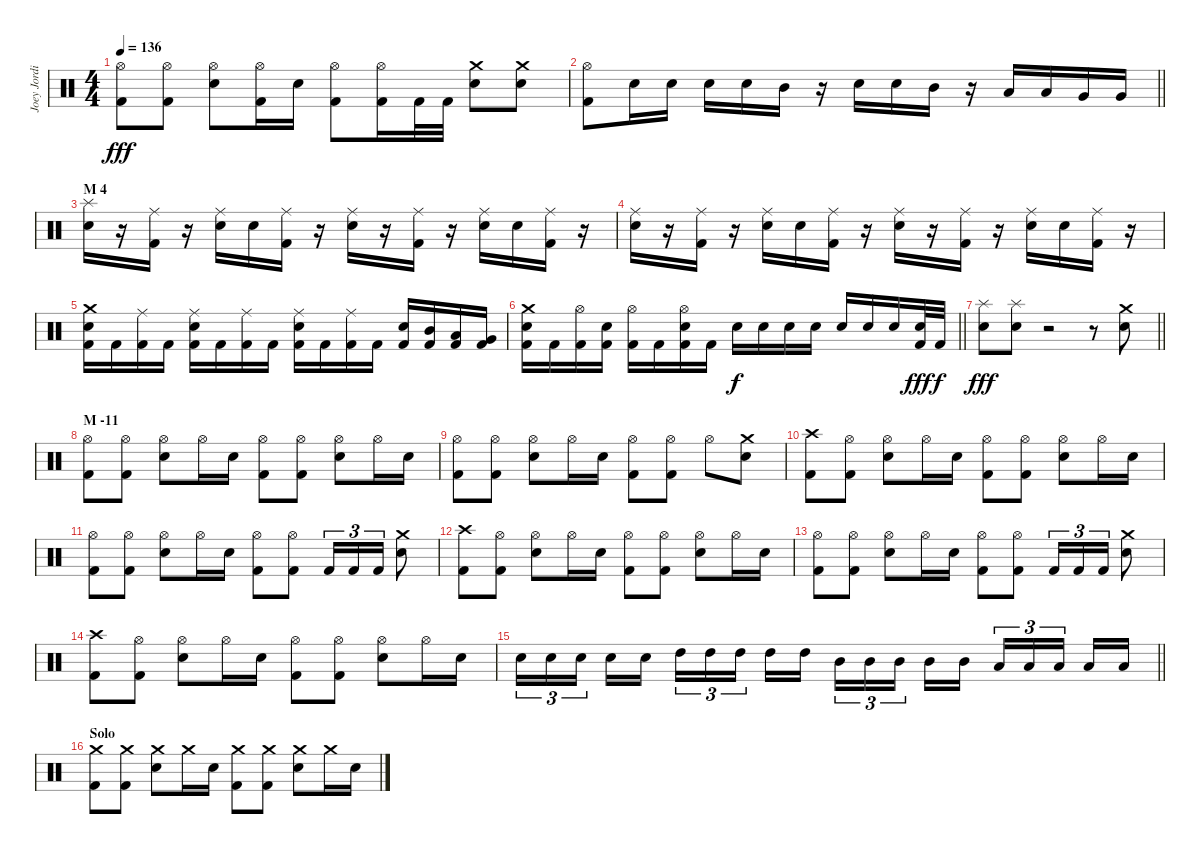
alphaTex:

\track ("Joey Jordison" "Joey Jordi") {instrument percussion}
\staff {score}
\articulation defaults
\ts (4 4)
\tempo 136
\clef neutral
\ks c
("Hi-Hat (open)" "Kick (hit) 2").8{dy fff} ("Hi-Hat (open)" "Kick (hit) 2").8 ("Hi-Hat (open)" "Electric Snare (hit)").8 ("Hi-Hat (open)" "Kick (hit) 2").16 "Electric Snare (hit)".16 ("Hi-Hat (open)" "Kick (hit) 2").8 ("Hi-Hat (open)" "Kick (hit) 2").16 "Kick (hit) 2".32 "Kick (hit) 2".32 ("Crash medium (hit)" "Electric Snare (hit)").8 ("Crash medium (hit)" "Electric Snare (hit)").8 |
\barLineRight lightlight
("Hi-Hat (open)" "Kick (hit) 2").8 "Electric Snare (hit)".16 "Electric Snare (hit)".16 "Electric Snare (hit)".16 "Electric Snare (hit)".16 "Mid Tom (hit)".16 r.16 "Electric Snare (hit)".16 "Electric Snare (hit)".16 "Mid Tom (hit)".16 r.16 "Low Tom (hit)".16 "Low Tom (hit)".16 "Very Low Tom (hit)".16 "Very Low Tom (hit)".16 |
\section ("" "M 4")
("Splash (hit)" "Electric Snare (hit)").16 r.16 ("Ride (middle)" "Kick (hit) 2").16 r.16 ("Ride (middle)" "Electric Snare (hit)").16 "Electric Snare (hit)".16 ("Ride (middle)" "Kick (hit) 2").16 r.16 ("Ride (middle)" "Electric Snare (hit)").16 r.16 ("Ride (middle)" "Kick (hit) 2").16 r.16 ("Ride (middle)" "Electric Snare (hit)").16 "Electric Snare (hit)".16 ("Ride (middle)" "Kick (hit) 2").16 r.16 |
("Ride (middle)" "Electric Snare (hit)").16 r.16 ("Ride (middle)" "Kick (hit) 2").16 r.16 ("Ride (middle)" "Electric Snare (hit)").16 "Electric Snare (hit)".16 ("Ride (middle)" "Kick (hit) 2").16 r.16 ("Ride (middle)" "Electric Snare (hit)").16 r.16 ("Ride (middle)" "Kick (hit) 2").16 r.16 ("Ride (middle)" "Electric Snare (hit)").16 "Electric Snare (hit)".16 ("Ride (middle)" "Kick (hit) 2").16 r.16 |
("Crash medium (hit)" "Electric Snare (hit)" "Kick (hit) 2").16 "Kick (hit) 2".16 ("Ride (middle)" "Kick (hit) 2").16 "Kick (hit) 2".16 ("Ride (middle)" "Electric Snare (hit)" "Kick (hit) 2").16 "Kick (hit) 2".16 ("Ride (middle)" "Kick (hit) 2").16 "Kick (hit) 2".16 ("Ride (middle)" "Electric Snare (hit)" "Kick (hit) 2").16 "Kick (hit) 2".16 ("Ride (middle)" "Kick (hit) 2").16 "Kick (hit) 2".16 ("Electric Snare (hit)" "Kick (hit) 2").16 ("Mid Tom (hit)" "Kick (hit) 2").16 ("Low Tom (hit)" "Kick (hit) 2").16 ("Very Low Tom (hit)" "Kick (hit) 2").16 |
\barLineRight lightlight
("Crash medium (hit)" "Electric Snare (hit)" "Kick (hit) 2").16 "Kick (hit) 2".16 ("Hi-Hat (open)" "Kick (hit) 2").16 ("Electric Snare (hit)" "Kick (hit) 2").16 ("Hi-Hat (open)" "Kick (hit) 2").16 "Kick (hit) 2".16 ("Hi-Hat (open)" "Electric Snare (hit)" "Kick (hit) 2").16 "Kick (hit) 2".16 "Electric Snare (hit)".16{dy f} "Electric Snare (hit)".16 "Electric Snare (hit)".16 "Electric Snare (hit)".16 "Electric Snare (hit)".16 "Electric Snare (hit)".16 "Electric Snare (hit)".16 ("Electric Snare (hit)" "Kick (hit) 2").32{dy fff} "Kick (hit) 2".32{dy f} |
\barLineRight lightlight
("Splash (hit)" "Electric Snare (hit)").8{dy fff} ("Splash (hit)" "Electric Snare (hit)").8 r.2 r.8 ("Crash medium (hit)" "Electric Snare (hit)").8 |
\section ("" "M -11")
("Hi-Hat (open)" "Kick (hit) 2").8 ("Hi-Hat (open)" "Kick (hit) 2").8 ("Hi-Hat (open)" "Electric Snare (hit)").8 "Hi-Hat (open)".16 "Electric Snare (hit)".16 ("Hi-Hat (open)" "Kick (hit) 2").8 ("Hi-Hat (open)" "Kick (hit) 2").8 ("Hi-Hat (open)" "Electric Snare (hit)").8 "Hi-Hat (open)".16 "Electric Snare (hit)".16 |
("Hi-Hat (open)" "Kick (hit) 2").8 ("Hi-Hat (open)" "Kick (hit) 2").8 ("Hi-Hat (open)" "Electric Snare (hit)").8 "Hi-Hat (open)".16 "Electric Snare (hit)".16 ("Hi-Hat (open)" "Kick (hit) 2").8 ("Hi-Hat (open)" "Kick (hit) 2").8 "Hi-Hat (open)".8 ("Crash medium (hit)" "Electric Snare (hit)").8 |
("Crash high (hit)" "Kick (hit) 2").8 ("Hi-Hat (open)" "Kick (hit) 2").8 ("Hi-Hat (open)" "Electric Snare (hit)").8 "Hi-Hat (open)".16 "Electric Snare (hit)".16 ("Hi-Hat (open)" "Kick (hit) 2").8 ("Hi-Hat (open)" "Kick (hit) 2").8 ("Hi-Hat (open)" "Electric Snare (hit)").8 "Hi-Hat (open)".16 "Electric Snare (hit)".16 |
("Hi-Hat (open)" "Kick (hit) 2").8 ("Hi-Hat (open)" "Kick (hit) 2").8 ("Hi-Hat (open)" "Electric Snare (hit)").8 "Hi-Hat (open)".16 "Electric Snare (hit)".16 ("Hi-Hat (open)" "Kick (hit) 2").8 ("Hi-Hat (open)" "Kick (hit) 2").8 "Kick (hit) 2".16{tu (3 2)} "Kick (hit) 2".16{tu (3 2)} "Kick (hit) 2".16{tu (3 2)} ("Crash medium (hit)" "Electric Snare (hit)").8 |
("Crash high (hit)" "Kick (hit) 2").8 ("Hi-Hat (open)" "Kick (hit) 2").8 ("Hi-Hat (open)" "Electric Snare (hit)").8 "Hi-Hat (open)".16 "Electric Snare (hit)".16 ("Hi-Hat (open)" "Kick (hit) 2").8 ("Hi-Hat (open)" "Kick (hit) 2").8 ("Hi-Hat (open)" "Electric Snare (hit)").8 "Hi-Hat (open)".16 "Electric Snare (hit)".16 |
("Hi-Hat (open)" "Kick (hit) 2").8 ("Hi-Hat (open)" "Kick (hit) 2").8 ("Hi-Hat (open)" "Electric Snare (hit)").8 "Hi-Hat (open)".16 "Electric Snare (hit)".16 ("Hi-Hat (open)" "Kick (hit) 2").8 ("Hi-Hat (open)" "Kick (hit) 2").8 "Kick (hit) 2".16{tu (3 2)} "Kick (hit) 2".16{tu (3 2)} "Kick (hit) 2".16{tu (3 2)} ("Crash medium (hit)" "Electric Snare (hit)").8 |
("Crash high (hit)" "Kick (hit) 2").8 ("Hi-Hat (open)" "Kick (hit) 2").8 ("Hi-Hat (open)" "Electric Snare (hit)").8 "Hi-Hat (open)".16 "Electric Snare (hit)".16 ("Hi-Hat (open)" "Kick (hit) 2").8 ("Hi-Hat (open)" "Kick (hit) 2").8 ("Hi-Hat (open)" "Electric Snare (hit)").8 "Hi-Hat (open)".16 "Electric Snare (hit)".16 |
\barLineRight lightlight "Electric Snare (hit)".16{tu (3 2)} "Electric Snare (hit)".16{tu (3 2)} "Electric Snare (hit)".16{tu (3 2) beam splitsecondary} "Electric Snare (hit)".16 "Electric Snare (hit)".16 "High Tom (hit)".16{tu (3 2)} "High Tom (hit)".16{tu (3 2)} "High Tom (hit)".16{tu (3 2) beam splitsecondary} "High Tom (hit)".16 "High Tom (hit)".16 "Mid Tom (hit)".16{tu (3 2)} "Mid Tom (hit)".16{tu (3 2)} "Mid Tom (hit)".16{tu (3 2) beam splitsecondary} "Mid Tom (hit)".16 "Mid Tom (hit)".16 "Low Tom (hit)".16{tu (3 2)} "Low Tom (hit)".16{tu (3 2)} "Low Tom (hit)".16{tu (3 2) beam splitsecondary} "Low Tom (hit)".16 "Low Tom (hit)".16
|
\section ("" "Solo")
("Crash medium (hit)" "Kick (hit) 2").8 ("Crash medium (hit)" "Kick (hit) 2").8 ("Crash medium (hit)" "Electric Snare (hit)").8 "Crash medium (hit)".16 "Electric Snare (hit)".16 ("Crash medium (hit)" "Kick (hit) 2").8 ("Crash medium (hit)" "Kick (hit) 2").8 ("Crash medium (hit)" "Electric Snare (hit)").8 "Crash medium (hit)".16 "Electric Snare (hit)".16
